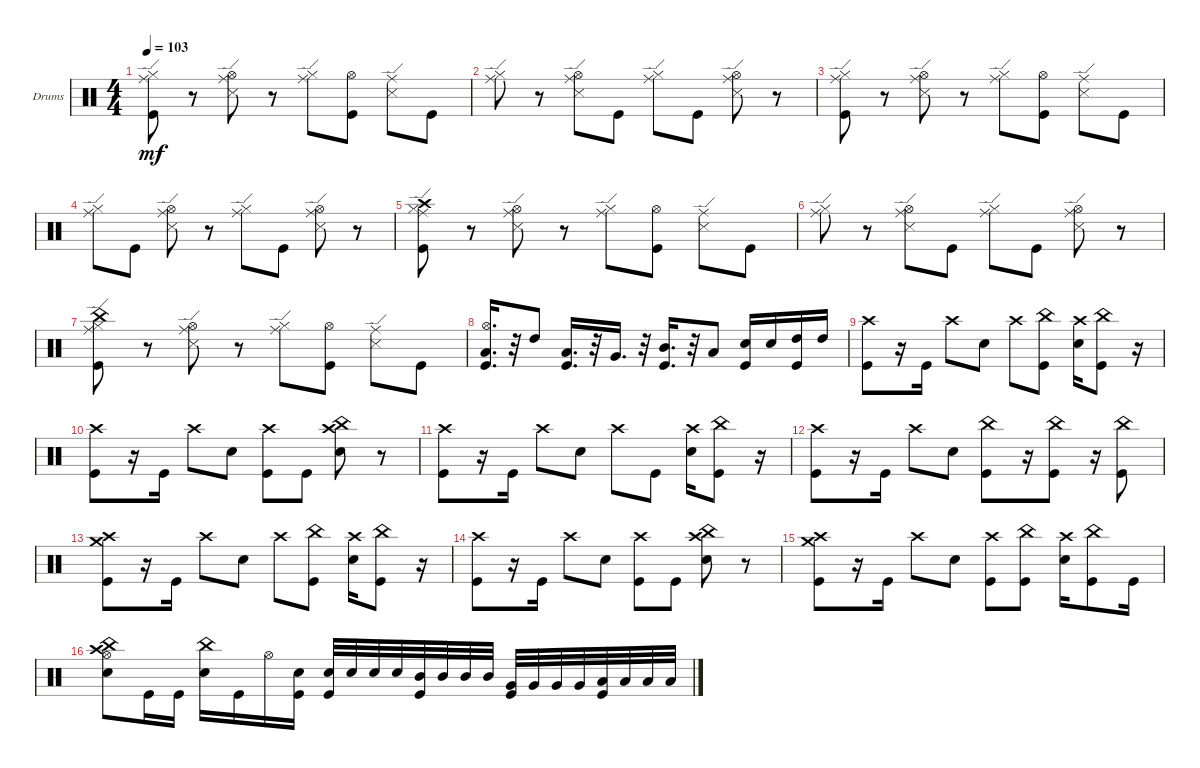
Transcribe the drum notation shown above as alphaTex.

\bracketExtendMode groupsimilarinstruments
\firstSystemTrackNameOrientation horizontal
\otherSystemsTrackNameOrientation horizontal
\track ("Drums" "Drums") {instrument percussion}
\staff {score}
\articulation defaults
\ts (4 4)
\tempo 103
\clef neutral
\ks c
("Kick (hit)" "Hi-Hat (closed)" "Ride (edge)").8{dy mf} r.8 ("Snare (side stick) 3" "Hi-Hat (open)" "Ride (edge)").8 r.8 ("Hi-Hat (closed)" "Ride (edge)").8 ("Kick (hit)" "Hi-Hat (open)").8 ("Ride (edge)" "Snare (side stick) 3").8 "Kick (hit)".8 |
("Ride (edge)" "Hi-Hat (closed)").8 r.8 ("Snare (side stick) 3" "Hi-Hat (open)" "Ride (edge)").8 "Kick (hit)".8 ("Ride (edge)" "Hi-Hat (closed)").8 "Kick (hit)".8 ("Ride (edge)" "Snare (side stick) 3" "Hi-Hat (open)").8 r.8 |
("Kick (hit)" "Ride (edge)" "Hi-Hat (closed)").8 r.8 ("Snare (side stick) 3" "Hi-Hat (open)" "Ride (edge)").8 r.8 ("Hi-Hat (closed)" "Ride (edge)").8 ("Kick (hit)" "Hi-Hat (open)").8 ("Ride (edge)" "Snare (side stick) 3").8 "Kick (hit)".8 |
("Ride (edge)" "Hi-Hat (closed)").8 "Kick (hit)".8 ("Ride (edge)" "Snare (side stick) 3" "Hi-Hat (open)").8 r.8 ("Hi-Hat (closed)" "Ride (edge)").8 "Kick (hit)".8 ("Ride (edge)" "Snare (side stick) 3" "Hi-Hat (open)").8 r.8 |
("Kick (hit)" "Ride (edge)" "Crash high (hit)" "Hi-Hat (closed)").8 r.8 ("Snare (side stick) 3" "Hi-Hat (open)" "Ride (edge)").8 r.8 ("Hi-Hat (closed)" "Ride (edge)").8 ("Kick (hit)" "Hi-Hat (open)").8 ("Ride (edge)" "Snare (side stick) 3").8 "Kick (hit)".8 |
("Ride (edge)" "Hi-Hat (closed)").8 r.8 ("Snare (side stick) 3" "Hi-Hat (open)" "Ride (edge)").8 "Kick (hit)".8 ("Ride (edge)" "Hi-Hat (closed)").8 "Kick (hit)".8 ("Ride (edge)" "Snare (side stick) 3" "Hi-Hat (open)").8 r.8 |
("Kick (hit)" "Ride (edge)" "Hi-Hat (closed)" "China (hit)").8 r.8 ("Snare (side stick) 3" "Hi-Hat (open)" "Ride (edge)").8 r.8 ("Ride (edge)" "Hi-Hat (closed)").8 ("Kick (hit)" "Hi-Hat (open)").8 ("Ride (edge)" "Snare (side stick) 3").8 "Kick (hit)".8 |
("Low Tom (hit)" "Kick (hit)" "Hi-Hat (open)").16{d} r.32 "High Tom (hit)".8 ("Low Tom (hit)" "Kick (hit)").16{d} r.32 "Very Low Tom (hit)".16{d} r.32 ("Mid Tom (hit)" "Kick (hit)").16{d} r.32 "Low Tom (hit)".8 ("Snare (hit) 2" "Kick (hit)").16 "Snare (hit) 2".16 ("High Tom (hit)" "Kick (hit)").16 "High Tom (hit)".16 |
("Crash high (hit)" "Kick (hit)").8 r.16 "Kick (hit)".16 "Crash high (hit)".8 "Snare (hit) 2".8 "Crash high (hit)".8 ("China (hit)" "Kick (hit)").8 ("Snare (hit) 2" "Crash high (hit)").16 ("China (hit)" "Kick (hit)").8 r.16 |
("Kick (hit)" "Crash high (hit)").8 r.16 "Kick (hit)".16 "Crash high (hit)".8 "Snare (hit) 2".8 ("Crash high (hit)" "Kick (hit)").8 "Kick (hit)".8 ("China (hit)" "Snare (hit) 2" "Crash high (hit)").8 r.8 |
("Kick (hit)" "Crash high (hit)").8 r.16 "Kick (hit)".16 "Crash high (hit)".8 "Snare (hit) 2".8 "Crash high (hit)".8 "Kick (hit)".8 ("Snare (hit) 2" "Crash high (hit)").16 ("China (hit)" "Kick (hit)").8 r.16 |
("Crash high (hit)" "Kick (hit)").8 r.16 "Kick (hit)".16 "Crash high (hit)".8 "Snare (hit) 2".8 ("Kick (hit)" "China (hit)").8 r.16 ("China (hit)" "Kick (hit)").8 r.16 ("Kick (hit)" "China (hit)").8 |
("Kick (hit)" "Crash high (hit)" "Crash medium (hit)").8 r.16 "Kick (hit)".16 "Crash high (hit)".8 "Snare (hit) 2".8 "Crash high (hit)".8 ("China (hit)" "Kick (hit)").8 ("Snare (hit) 2" "Crash high (hit)").16 ("China (hit)" "Kick (hit)").8 r.16 |
("Crash high (hit)" "Kick (hit)").8 r.16 "Kick (hit)".16 "Crash high (hit)".8 "Snare (hit) 2".8 ("Kick (hit)" "Crash high (hit)").8 "Kick (hit)".8 ("China (hit)" "Crash high (hit)" "Snare (hit) 2").8 r.8 |
("Crash medium (hit)" "Crash high (hit)" "Kick (hit)").8 r.16 "Kick (hit)".16 "Crash high (hit)".8 "Snare (hit) 2".8 ("Kick (hit)" "Crash high (hit)").8 ("China (hit)" "Kick (hit)").8 ("Snare (hit) 2" "Crash high (hit)").16 ("China (hit)" "Kick (hit)").8 "Kick (hit)".16 |
("Hi-Hat (open)" "Snare (hit) 2" "Crash high (hit)" "China (hit)").8 "Kick (hit)".16 "Kick (hit)".16 ("Snare (hit) 2" "China (hit)").16 "Kick (hit)".16 "Hi-Hat (open)".16 ("Kick (hit)" "Snare (hit) 2").16 ("Snare (hit) 2" "Kick (hit)").32 "Snare (hit) 2".32 "Snare (hit) 2".32 "Snare (hit) 2".32 ("Mid Tom (hit)" "Kick (hit)").32 "Mid Tom (hit)".32 "Mid Tom (hit)".32 "Mid Tom (hit)".32 ("Very Low Tom (hit)" "Kick (hit)").32 "Very Low Tom (hit)".32 "Very Low Tom (hit)".32 "Very Low Tom (hit)".32 ("Low Tom (hit)" "Kick (hit)").32 "Low Tom (hit)".32 "Low Tom (hit)".32 "Low Tom (hit)".32
